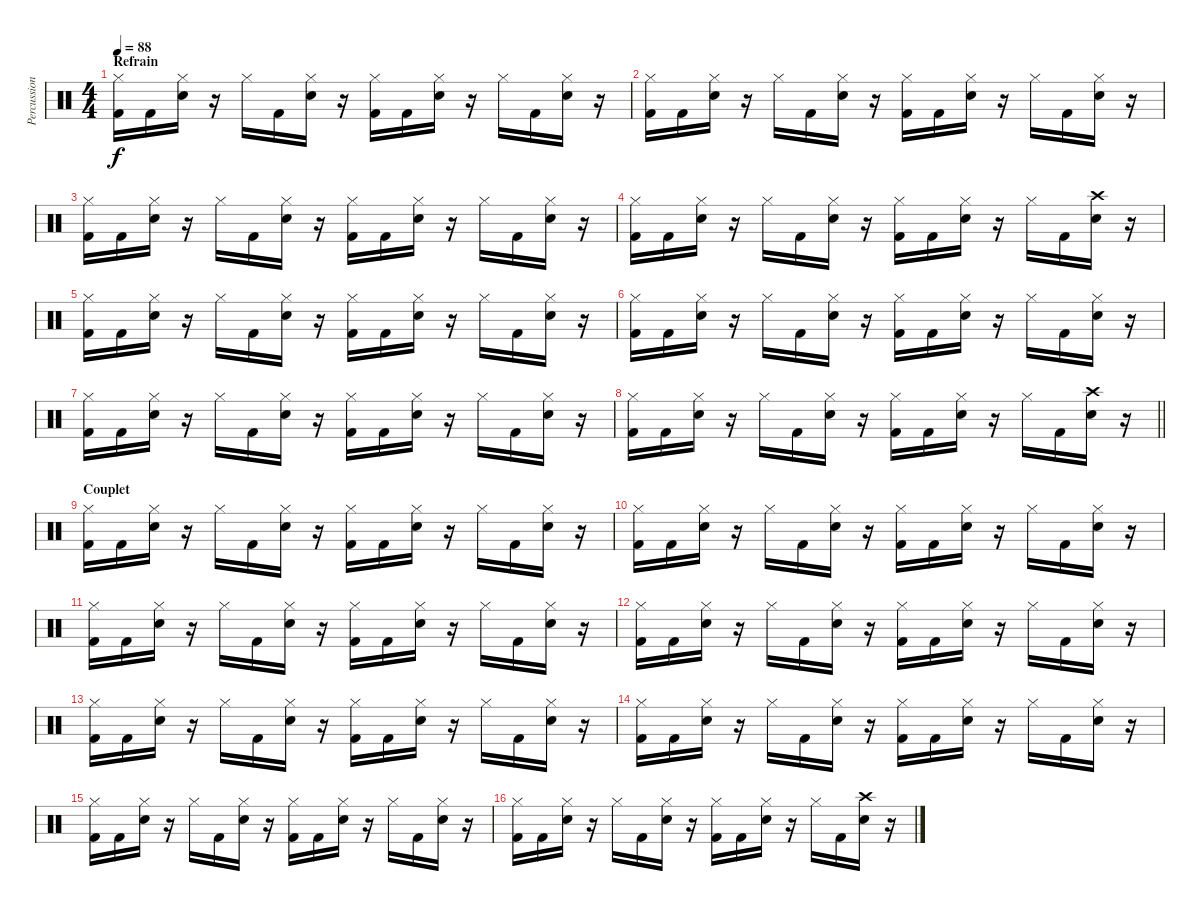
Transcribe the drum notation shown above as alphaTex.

\track ("Percussions" "Percussion") {instrument percussion}
\staff {score}
\articulation defaults
\ts (4 4)
\section ("" "Refrain")
\tempo 88
\clef neutral
\ks c
("Hi-Hat (closed)" "Kick (hit) 2").16{dy f} "Kick (hit) 2".16 ("Hi-Hat (closed)" "Snare (hit) 2").16 r.16 "Hi-Hat (closed)".16 "Kick (hit) 2".16 ("Hi-Hat (closed)" "Snare (hit) 2").16 r.16 ("Hi-Hat (closed)" "Kick (hit) 2").16 "Kick (hit) 2".16 ("Hi-Hat (closed)" "Snare (hit) 2").16 r.16 "Hi-Hat (closed)".16 "Kick (hit) 2".16 ("Hi-Hat (closed)" "Snare (hit) 2").16 r.16 |
("Hi-Hat (closed)" "Kick (hit) 2").16 "Kick (hit) 2".16 ("Hi-Hat (closed)" "Snare (hit) 2").16 r.16 "Hi-Hat (closed)".16 "Kick (hit) 2".16 ("Hi-Hat (closed)" "Snare (hit) 2").16 r.16 ("Hi-Hat (closed)" "Kick (hit) 2").16 "Kick (hit) 2".16 ("Hi-Hat (closed)" "Snare (hit) 2").16 r.16 "Hi-Hat (closed)".16 "Kick (hit) 2".16 ("Hi-Hat (closed)" "Snare (hit) 2").16 r.16 |
("Hi-Hat (closed)" "Kick (hit) 2").16 "Kick (hit) 2".16 ("Hi-Hat (closed)" "Snare (hit) 2").16 r.16 "Hi-Hat (closed)".16 "Kick (hit) 2".16 ("Hi-Hat (closed)" "Snare (hit) 2").16 r.16 ("Hi-Hat (closed)" "Kick (hit) 2").16 "Kick (hit) 2".16 ("Hi-Hat (closed)" "Snare (hit) 2").16 r.16 "Hi-Hat (closed)".16 "Kick (hit) 2".16 ("Hi-Hat (closed)" "Snare (hit) 2").16 r.16 |
("Hi-Hat (closed)" "Kick (hit) 2").16 "Kick (hit) 2".16 ("Hi-Hat (closed)" "Snare (hit) 2").16 r.16 "Hi-Hat (closed)".16 "Kick (hit) 2".16 ("Hi-Hat (closed)" "Snare (hit) 2").16 r.16 ("Hi-Hat (closed)" "Kick (hit) 2").16 "Kick (hit) 2".16 ("Hi-Hat (closed)" "Snare (hit) 2").16 r.16 "Hi-Hat (closed)".16 "Kick (hit) 2".16 ("Crash high (hit)" "Snare (hit) 2").16 r.16 |
("Hi-Hat (closed)" "Kick (hit) 2").16 "Kick (hit) 2".16 ("Hi-Hat (closed)" "Snare (hit) 2").16 r.16 "Hi-Hat (closed)".16 "Kick (hit) 2".16 ("Hi-Hat (closed)" "Snare (hit) 2").16 r.16 ("Hi-Hat (closed)" "Kick (hit) 2").16 "Kick (hit) 2".16 ("Hi-Hat (closed)" "Snare (hit) 2").16 r.16 "Hi-Hat (closed)".16 "Kick (hit) 2".16 ("Hi-Hat (closed)" "Snare (hit) 2").16 r.16 |
("Hi-Hat (closed)" "Kick (hit) 2").16 "Kick (hit) 2".16 ("Hi-Hat (closed)" "Snare (hit) 2").16 r.16 "Hi-Hat (closed)".16 "Kick (hit) 2".16 ("Hi-Hat (closed)" "Snare (hit) 2").16 r.16 ("Hi-Hat (closed)" "Kick (hit) 2").16 "Kick (hit) 2".16 ("Hi-Hat (closed)" "Snare (hit) 2").16 r.16 "Hi-Hat (closed)".16 "Kick (hit) 2".16 ("Hi-Hat (closed)" "Snare (hit) 2").16 r.16 |
("Hi-Hat (closed)" "Kick (hit) 2").16 "Kick (hit) 2".16 ("Hi-Hat (closed)" "Snare (hit) 2").16 r.16 "Hi-Hat (closed)".16 "Kick (hit) 2".16 ("Hi-Hat (closed)" "Snare (hit) 2").16 r.16 ("Hi-Hat (closed)" "Kick (hit) 2").16 "Kick (hit) 2".16 ("Hi-Hat (closed)" "Snare (hit) 2").16 r.16 "Hi-Hat (closed)".16 "Kick (hit) 2".16 ("Hi-Hat (closed)" "Snare (hit) 2").16 r.16 |
\barLineRight lightlight
("Hi-Hat (closed)" "Kick (hit) 2").16 "Kick (hit) 2".16 ("Hi-Hat (closed)" "Snare (hit) 2").16 r.16 "Hi-Hat (closed)".16 "Kick (hit) 2".16 ("Hi-Hat (closed)" "Snare (hit) 2").16 r.16 ("Hi-Hat (closed)" "Kick (hit) 2").16 "Kick (hit) 2".16 ("Hi-Hat (closed)" "Snare (hit) 2").16 r.16 "Hi-Hat (closed)".16 "Kick (hit) 2".16 ("Crash high (hit)" "Snare (hit) 2").16 r.16 |
\section ("" "Couplet")
("Hi-Hat (closed)" "Kick (hit) 2").16 "Kick (hit) 2".16 ("Hi-Hat (closed)" "Snare (hit) 2").16 r.16 "Hi-Hat (closed)".16 "Kick (hit) 2".16 ("Hi-Hat (closed)" "Snare (hit) 2").16 r.16 ("Hi-Hat (closed)" "Kick (hit) 2").16 "Kick (hit) 2".16 ("Hi-Hat (closed)" "Snare (hit) 2").16 r.16 "Hi-Hat (closed)".16 "Kick (hit) 2".16 ("Hi-Hat (closed)" "Snare (hit) 2").16 r.16 |
("Hi-Hat (closed)" "Kick (hit) 2").16 "Kick (hit) 2".16 ("Hi-Hat (closed)" "Snare (hit) 2").16 r.16 "Hi-Hat (closed)".16 "Kick (hit) 2".16 ("Hi-Hat (closed)" "Snare (hit) 2").16 r.16 ("Hi-Hat (closed)" "Kick (hit) 2").16 "Kick (hit) 2".16 ("Hi-Hat (closed)" "Snare (hit) 2").16 r.16 "Hi-Hat (closed)".16 "Kick (hit) 2".16 ("Hi-Hat (closed)" "Snare (hit) 2").16 r.16 |
("Hi-Hat (closed)" "Kick (hit) 2").16 "Kick (hit) 2".16 ("Hi-Hat (closed)" "Snare (hit) 2").16 r.16 "Hi-Hat (closed)".16 "Kick (hit) 2".16 ("Hi-Hat (closed)" "Snare (hit) 2").16 r.16 ("Hi-Hat (closed)" "Kick (hit) 2").16 "Kick (hit) 2".16 ("Hi-Hat (closed)" "Snare (hit) 2").16 r.16 "Hi-Hat (closed)".16 "Kick (hit) 2".16 ("Hi-Hat (closed)" "Snare (hit) 2").16 r.16 |
("Hi-Hat (closed)" "Kick (hit) 2").16 "Kick (hit) 2".16 ("Hi-Hat (closed)" "Snare (hit) 2").16 r.16 "Hi-Hat (closed)".16 "Kick (hit) 2".16 ("Hi-Hat (closed)" "Snare (hit) 2").16 r.16 ("Hi-Hat (closed)" "Kick (hit) 2").16 "Kick (hit) 2".16 ("Hi-Hat (closed)" "Snare (hit) 2").16 r.16 "Hi-Hat (closed)".16 "Kick (hit) 2".16 ("Hi-Hat (closed)" "Snare (hit) 2").16 r.16 |
("Hi-Hat (closed)" "Kick (hit) 2").16 "Kick (hit) 2".16 ("Hi-Hat (closed)" "Snare (hit) 2").16 r.16 "Hi-Hat (closed)".16 "Kick (hit) 2".16 ("Hi-Hat (closed)" "Snare (hit) 2").16 r.16 ("Hi-Hat (closed)" "Kick (hit) 2").16 "Kick (hit) 2".16 ("Hi-Hat (closed)" "Snare (hit) 2").16 r.16 "Hi-Hat (closed)".16 "Kick (hit) 2".16 ("Hi-Hat (closed)" "Snare (hit) 2").16 r.16 |
("Hi-Hat (closed)" "Kick (hit) 2").16 "Kick (hit) 2".16 ("Hi-Hat (closed)" "Snare (hit) 2").16 r.16 "Hi-Hat (closed)".16 "Kick (hit) 2".16 ("Hi-Hat (closed)" "Snare (hit) 2").16 r.16 ("Hi-Hat (closed)" "Kick (hit) 2").16 "Kick (hit) 2".16 ("Hi-Hat (closed)" "Snare (hit) 2").16 r.16 "Hi-Hat (closed)".16 "Kick (hit) 2".16 ("Hi-Hat (closed)" "Snare (hit) 2").16 r.16 |
("Hi-Hat (closed)" "Kick (hit) 2").16 "Kick (hit) 2".16 ("Hi-Hat (closed)" "Snare (hit) 2").16 r.16 "Hi-Hat (closed)".16 "Kick (hit) 2".16 ("Hi-Hat (closed)" "Snare (hit) 2").16 r.16 ("Hi-Hat (closed)" "Kick (hit) 2").16 "Kick (hit) 2".16 ("Hi-Hat (closed)" "Snare (hit) 2").16 r.16 "Hi-Hat (closed)".16 "Kick (hit) 2".16 ("Hi-Hat (closed)" "Snare (hit) 2").16 r.16 |
("Hi-Hat (closed)" "Kick (hit) 2").16 "Kick (hit) 2".16 ("Hi-Hat (closed)" "Snare (hit) 2").16 r.16 "Hi-Hat (closed)".16 "Kick (hit) 2".16 ("Hi-Hat (closed)" "Snare (hit) 2").16 r.16 ("Hi-Hat (closed)" "Kick (hit) 2").16 "Kick (hit) 2".16 ("Hi-Hat (closed)" "Snare (hit) 2").16 r.16 "Hi-Hat (closed)".16 "Kick (hit) 2".16 ("Crash high (hit)" "Snare (hit) 2").16 r.16
